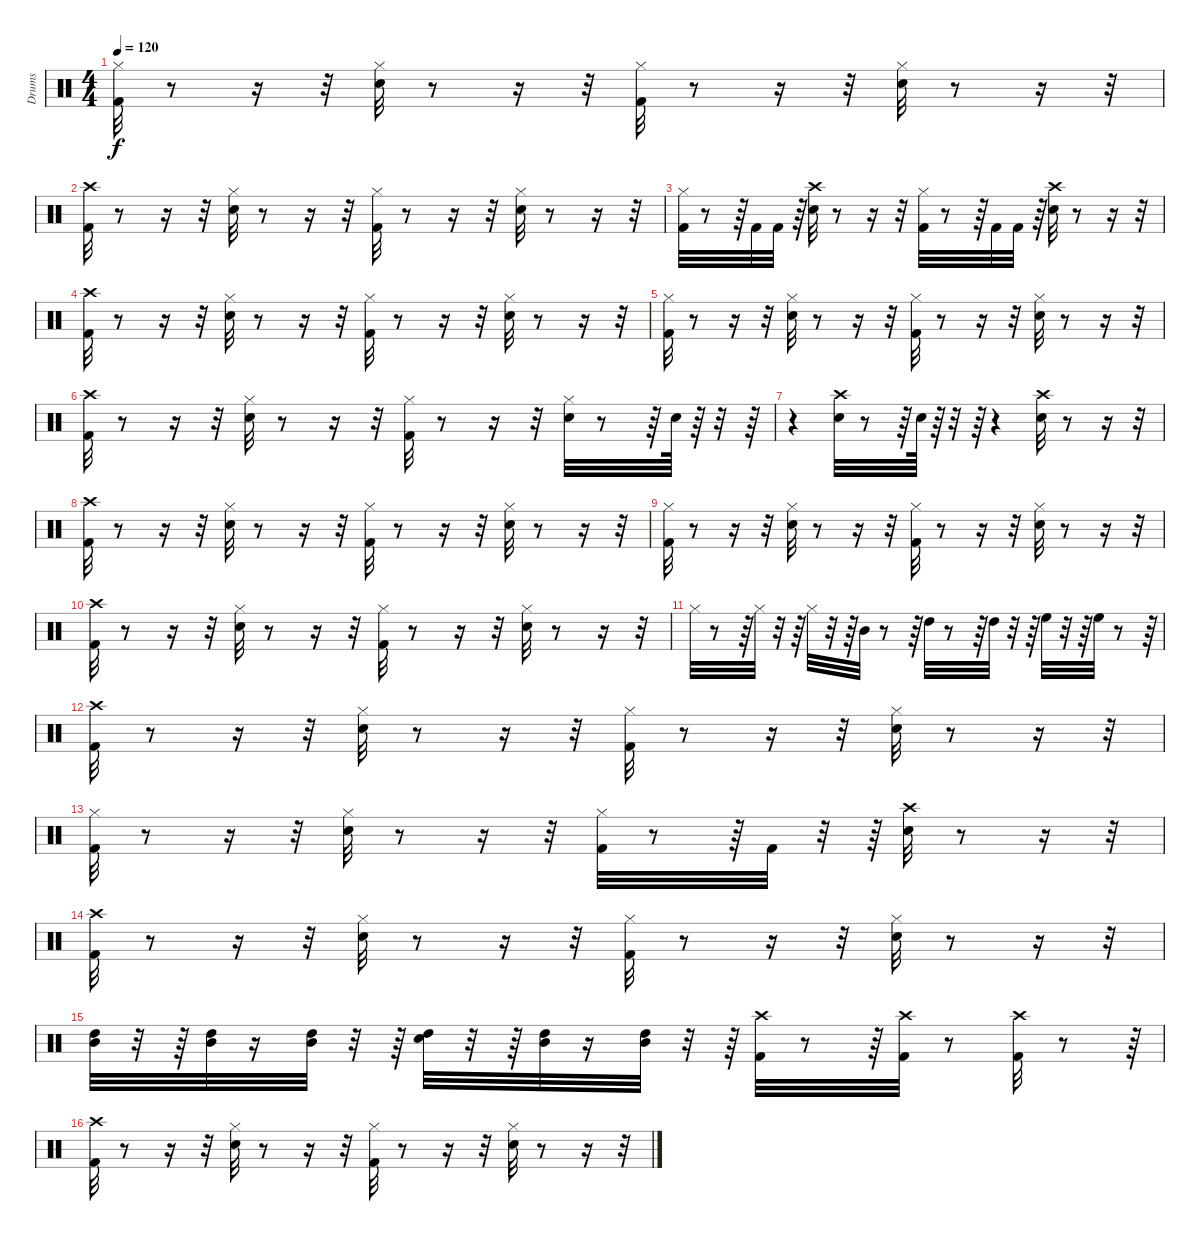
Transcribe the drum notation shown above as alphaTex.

\track ("Drums" "Drums") {instrument percussion}
\staff {score}
\articulation defaults
\ts (4 4)
\tempo 120
\clef neutral
\ks c
("Kick (hit) 2" "Hi-Hat (closed)").32{dy f} r.8 r.16 r.32 ("Snare (hit) 2" "Hi-Hat (closed)").32 r.8 r.16 r.32 ("Kick (hit) 2" "Hi-Hat (closed)").32 r.8 r.16 r.32 ("Snare (hit) 2" "Hi-Hat (closed)").32 r.8 r.16 r.32 |
("Kick (hit) 2" "Crash high (hit)").32 r.8 r.16 r.32 ("Hi-Hat (closed)" "Snare (hit) 2").32 r.8 r.16 r.32 ("Hi-Hat (closed)" "Kick (hit) 2").32 r.8 r.16 r.32 ("Hi-Hat (closed)" "Snare (hit) 2").32 r.8 r.16 r.32 |
("Kick (hit) 2" "Hi-Hat (closed)").32 r.8 r.64 "Kick (hit) 2".32 "Kick (hit) 2".32 r.64 ("Snare (hit) 2" "Crash high (hit)").32 r.8 r.16 r.32 ("Hi-Hat (closed)" "Kick (hit) 2").32 r.8 r.64 "Kick (hit) 2".32 "Kick (hit) 2".32 r.64 ("Crash high (hit)" "Snare (hit) 2").32 r.8 r.16 r.32 |
("Kick (hit) 2" "Crash high (hit)").32 r.8 r.16 r.32 ("Hi-Hat (closed)" "Snare (hit) 2").32 r.8 r.16 r.32 ("Hi-Hat (closed)" "Kick (hit) 2").32 r.8 r.16 r.32 ("Hi-Hat (closed)" "Snare (hit) 2").32 r.8 r.16 r.32 |
("Kick (hit) 2" "Hi-Hat (closed)").32 r.8 r.16 r.32 ("Snare (hit) 2" "Hi-Hat (closed)").32 r.8 r.16 r.32 ("Kick (hit) 2" "Hi-Hat (closed)").32 r.8 r.16 r.32 ("Snare (hit) 2" "Hi-Hat (closed)").32 r.8 r.16 r.32 |
("Crash high (hit)" "Kick (hit) 2").32 r.8 r.16 r.32 ("Hi-Hat (closed)" "Snare (hit) 2").32 r.8 r.16 r.32 ("Kick (hit) 2" "Hi-Hat (closed)").32 r.8 r.16 r.32 ("Hi-Hat (closed)" "Snare (hit) 2").32 r.8 r.64 "Snare (hit) 2".64 r.64 r.32 r.64 |
r.4 ("Crash high (hit)" "Snare (hit) 2").32 r.8 r.64 "Snare (hit) 2".64 r.64 r.32 r.64 r.4 ("Crash high (hit)" "Snare (hit) 2").32 r.8 r.16 r.32 |
("Kick (hit) 2" "Crash high (hit)").32 r.8 r.16 r.32 ("Snare (hit) 2" "Hi-Hat (closed)").32 r.8 r.16 r.32 ("Kick (hit) 2" "Hi-Hat (closed)").32 r.8 r.16 r.32 ("Snare (hit) 2" "Hi-Hat (closed)").32 r.8 r.16 r.32 |
("Kick (hit) 2" "Hi-Hat (closed)").32 r.8 r.16 r.32 ("Snare (hit) 2" "Hi-Hat (closed)").32 r.8 r.16 r.32 ("Kick (hit) 2" "Hi-Hat (closed)").32 r.8 r.16 r.32 ("Snare (hit) 2" "Hi-Hat (closed)").32 r.8 r.16 r.32 |
("Kick (hit) 2" "Crash high (hit)").32 r.8 r.16 r.32 ("Hi-Hat (closed)" "Snare (hit) 2").32 r.8 r.16 r.32 ("Hi-Hat (closed)" "Kick (hit) 2").32 r.8 r.16 r.32 ("Hi-Hat (closed)" "Snare (hit) 2").32 r.8 r.16 r.32 |
"Hi-Hat (closed)".32 r.8 r.64 "Hi-Hat (closed)".32 r.32 r.64 "Hi-Hat (closed)".32 r.32 r.64 "Mid Tom (hit)".32 r.8 r.64 "High Tom (hit)".32 r.8 r.64 "High Tom (hit)".32 r.32 r.64 "High Floor Tom (hit)".32 r.32 r.64 "High Floor Tom (hit)".32 r.8 r.64 |
("Kick (hit) 2" "Crash high (hit)").32 r.8 r.16 r.32 ("Snare (hit) 2" "Hi-Hat (closed)").32 r.8 r.16 r.32 ("Kick (hit) 2" "Hi-Hat (closed)").32 r.8 r.16 r.32 ("Snare (hit) 2" "Hi-Hat (closed)").32 r.8 r.16 r.32 |
("Hi-Hat (closed)" "Kick (hit) 2").32 r.8 r.16 r.32 ("Snare (hit) 2" "Hi-Hat (closed)").32 r.8 r.16 r.32 ("Kick (hit) 2" "Hi-Hat (closed)").32 r.8 r.64 "Kick (hit) 2".32 r.32 r.64 ("Snare (hit) 2" "Crash high (hit)").32 r.8 r.16 r.32 |
("Crash high (hit)" "Kick (hit) 2").32 r.8 r.16 r.32 ("Snare (hit) 2" "Hi-Hat (closed)").32 r.8 r.16 r.32 ("Hi-Hat (closed)" "Kick (hit) 2").32 r.8 r.16 r.32 ("Snare (hit) 2" "Hi-Hat (closed)").32 r.8 r.16 r.32 |
("High Tom (hit)" "Mid Tom (hit)").32 r.32 r.64 ("High Tom (hit)" "Mid Tom (hit)").32 r.16 ("High Tom (hit)" "Mid Tom (hit)").32 r.32 r.64 ("Snare (hit) 2" "High Tom (hit)").32 r.32 r.64 ("High Tom (hit)" "Mid Tom (hit)").32 r.16 ("High Tom (hit)" "Mid Tom (hit)").32 r.32 r.64 ("Kick (hit) 2" "Crash high (hit)").32 r.8 r.64 ("Kick (hit) 2" "Crash high (hit)").32 r.8 ("Kick (hit) 2" "Crash high (hit)").32 r.8 r.64 |
("Kick (hit) 2" "Crash high (hit)").32 r.8 r.16 r.32 ("Snare (hit) 2" "Hi-Hat (closed)").32 r.8 r.16 r.32 ("Kick (hit) 2" "Hi-Hat (closed)").32 r.8 r.16 r.32 ("Snare (hit) 2" "Hi-Hat (closed)").32 r.8 r.16 r.32
